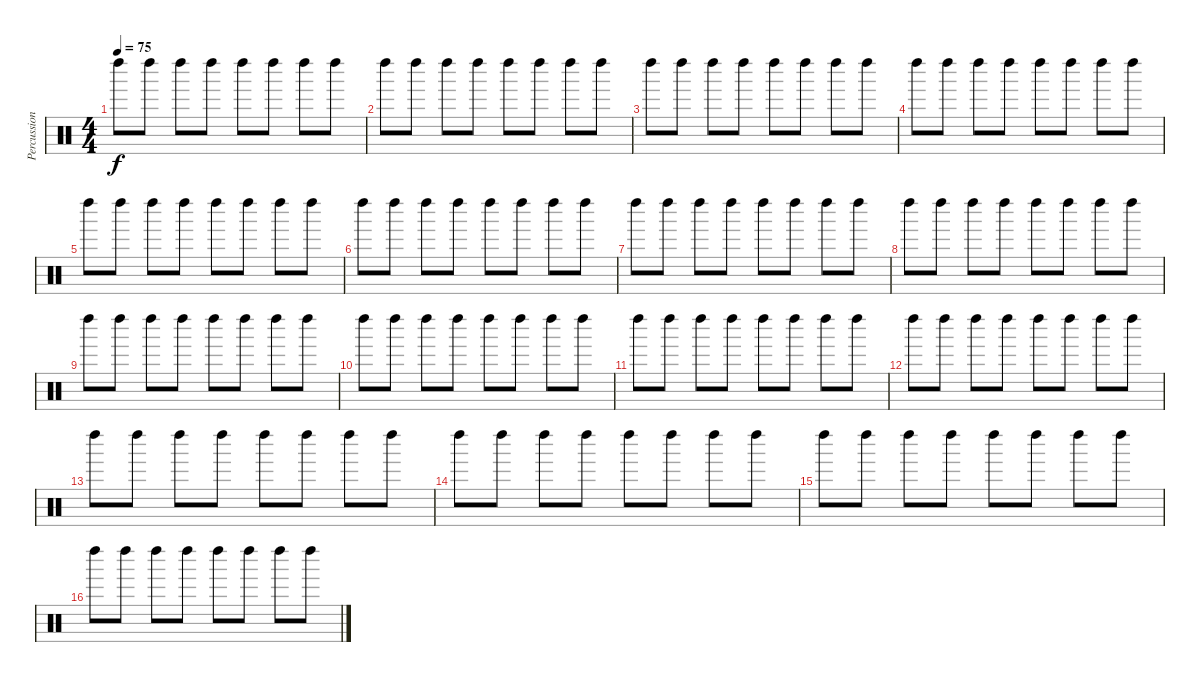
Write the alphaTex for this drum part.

\track ("Percussion2" "Percussion") {instrument percussion}
\staff {score}
\articulation defaults
\ts (4 4)
\tempo 75
\clef neutral
\ks c "Left Maraca (hit)".8{dy f} "Left Maraca (hit)".8 "Left Maraca (hit)".8 "Left Maraca (hit)".8 "Left Maraca (hit)".8 "Left Maraca (hit)".8 "Left Maraca (hit)".8 "Left Maraca (hit)".8
|
"Left Maraca (hit)".8 "Left Maraca (hit)".8 "Left Maraca (hit)".8 "Left Maraca (hit)".8 "Left Maraca (hit)".8 "Left Maraca (hit)".8 "Left Maraca (hit)".8 "Left Maraca (hit)".8 |
"Left Maraca (hit)".8 "Left Maraca (hit)".8 "Left Maraca (hit)".8 "Left Maraca (hit)".8 "Left Maraca (hit)".8 "Left Maraca (hit)".8 "Left Maraca (hit)".8 "Left Maraca (hit)".8 |
"Left Maraca (hit)".8 "Left Maraca (hit)".8 "Left Maraca (hit)".8 "Left Maraca (hit)".8 "Left Maraca (hit)".8 "Left Maraca (hit)".8 "Left Maraca (hit)".8 "Left Maraca (hit)".8 |
"Left Maraca (hit)".8 "Left Maraca (hit)".8 "Left Maraca (hit)".8 "Left Maraca (hit)".8 "Left Maraca (hit)".8 "Left Maraca (hit)".8 "Left Maraca (hit)".8 "Left Maraca (hit)".8 |
"Left Maraca (hit)".8 "Left Maraca (hit)".8 "Left Maraca (hit)".8 "Left Maraca (hit)".8 "Left Maraca (hit)".8 "Left Maraca (hit)".8 "Left Maraca (hit)".8 "Left Maraca (hit)".8 |
"Left Maraca (hit)".8 "Left Maraca (hit)".8 "Left Maraca (hit)".8 "Left Maraca (hit)".8 "Left Maraca (hit)".8 "Left Maraca (hit)".8 "Left Maraca (hit)".8 "Left Maraca (hit)".8 |
"Left Maraca (hit)".8 "Left Maraca (hit)".8 "Left Maraca (hit)".8 "Left Maraca (hit)".8 "Left Maraca (hit)".8 "Left Maraca (hit)".8 "Left Maraca (hit)".8 "Left Maraca (hit)".8 |
"Left Maraca (hit)".8 "Left Maraca (hit)".8 "Left Maraca (hit)".8 "Left Maraca (hit)".8 "Left Maraca (hit)".8 "Left Maraca (hit)".8 "Left Maraca (hit)".8 "Left Maraca (hit)".8 |
"Left Maraca (hit)".8 "Left Maraca (hit)".8 "Left Maraca (hit)".8 "Left Maraca (hit)".8 "Left Maraca (hit)".8 "Left Maraca (hit)".8 "Left Maraca (hit)".8 "Left Maraca (hit)".8 |
"Left Maraca (hit)".8 "Left Maraca (hit)".8 "Left Maraca (hit)".8 "Left Maraca (hit)".8 "Left Maraca (hit)".8 "Left Maraca (hit)".8 "Left Maraca (hit)".8 "Left Maraca (hit)".8 |
"Left Maraca (hit)".8 "Left Maraca (hit)".8 "Left Maraca (hit)".8 "Left Maraca (hit)".8 "Left Maraca (hit)".8 "Left Maraca (hit)".8 "Left Maraca (hit)".8 "Left Maraca (hit)".8 |
"Left Maraca (hit)".8 "Left Maraca (hit)".8 "Left Maraca (hit)".8 "Left Maraca (hit)".8 "Left Maraca (hit)".8 "Left Maraca (hit)".8 "Left Maraca (hit)".8 "Left Maraca (hit)".8 |
"Left Maraca (hit)".8 "Left Maraca (hit)".8 "Left Maraca (hit)".8 "Left Maraca (hit)".8 "Left Maraca (hit)".8 "Left Maraca (hit)".8 "Left Maraca (hit)".8 "Left Maraca (hit)".8 |
"Left Maraca (hit)".8 "Left Maraca (hit)".8 "Left Maraca (hit)".8 "Left Maraca (hit)".8 "Left Maraca (hit)".8 "Left Maraca (hit)".8 "Left Maraca (hit)".8 "Left Maraca (hit)".8 |
"Left Maraca (hit)".8 "Left Maraca (hit)".8 "Left Maraca (hit)".8 "Left Maraca (hit)".8 "Left Maraca (hit)".8 "Left Maraca (hit)".8 "Left Maraca (hit)".8 "Left Maraca (hit)".8
